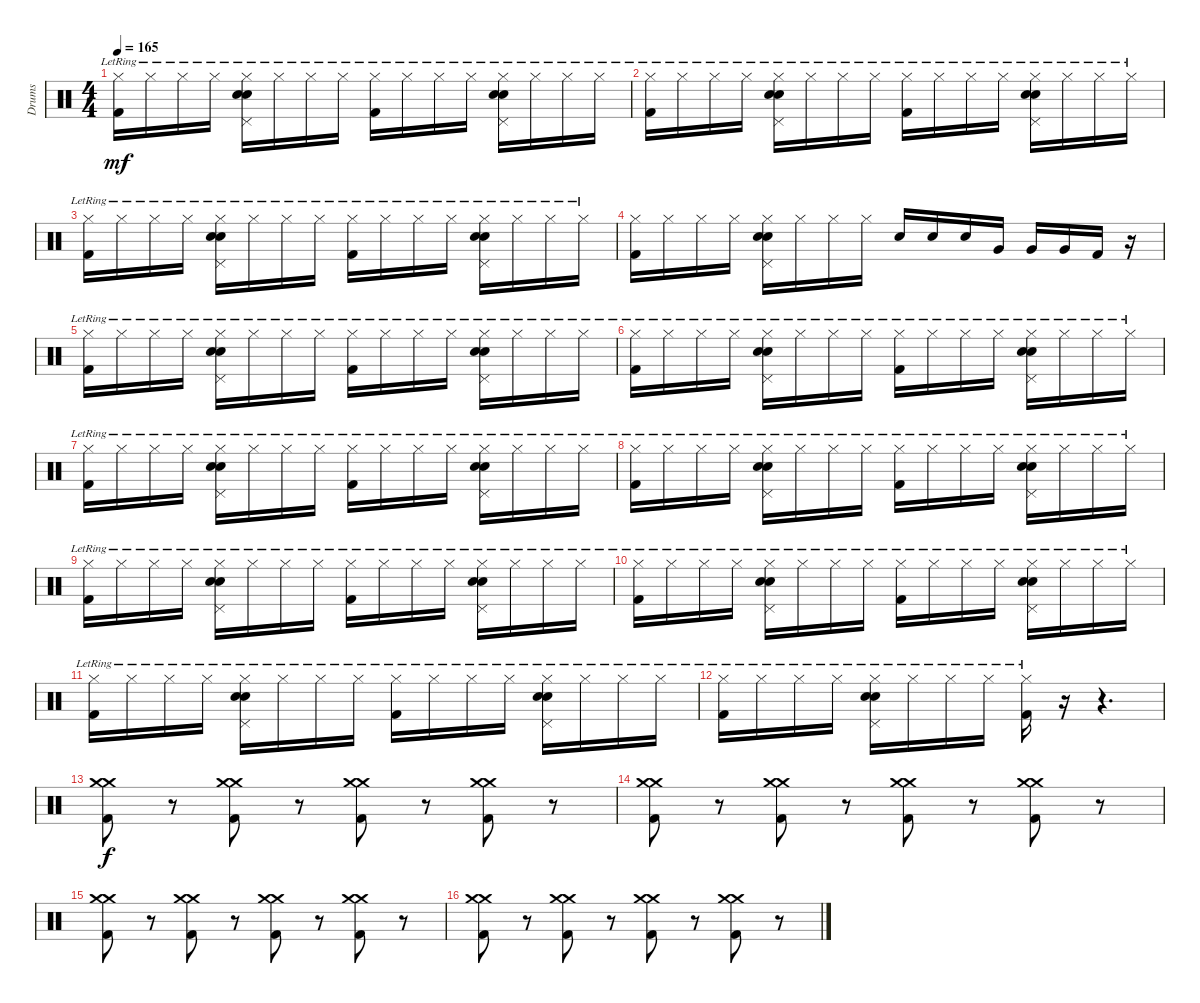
\track ("Drums" "Drums") {instrument percussion}
\staff {score}
\articulation defaults
\ts (4 4)
\tempo 165
\clef neutral
\ks c
("Hi-Hat (closed)"{lr} "Kick (hit) 2").16{dy mf} "Hi-Hat (closed)"{lr}.16 "Hi-Hat (closed)"{lr}.16 "Hi-Hat (closed)"{lr}.16 ("Hi-Hat (closed)"{lr} "Pedal Hi-Hat (hit)" "Electric Snare (hit)" "Electric Snare (hit)").16 "Hi-Hat (closed)"{lr}.16 "Hi-Hat (closed)"{lr}.16 "Hi-Hat (closed)"{lr}.16 ("Hi-Hat (closed)"{lr} "Kick (hit) 2").16 "Hi-Hat (closed)"{lr}.16 "Hi-Hat (closed)"{lr}.16 "Hi-Hat (closed)"{lr}.16 ("Hi-Hat (closed)"{lr} "Pedal Hi-Hat (hit)" "Electric Snare (hit)" "Electric Snare (hit)").16 "Hi-Hat (closed)"{lr}.16 "Hi-Hat (closed)"{lr}.16 "Hi-Hat (closed)"{lr}.16 |
("Hi-Hat (closed)"{lr} "Kick (hit) 2").16 "Hi-Hat (closed)"{lr}.16 "Hi-Hat (closed)"{lr}.16 "Hi-Hat (closed)"{lr}.16 ("Hi-Hat (closed)"{lr} "Pedal Hi-Hat (hit)" "Electric Snare (hit)" "Electric Snare (hit)").16 "Hi-Hat (closed)"{lr}.16 "Hi-Hat (closed)"{lr}.16 "Hi-Hat (closed)"{lr}.16 ("Hi-Hat (closed)"{lr} "Kick (hit) 2").16 "Hi-Hat (closed)"{lr}.16 "Hi-Hat (closed)"{lr}.16 "Hi-Hat (closed)"{lr}.16 ("Hi-Hat (closed)"{lr} "Pedal Hi-Hat (hit)" "Electric Snare (hit)" "Electric Snare (hit)").16 "Hi-Hat (closed)"{lr}.16 "Hi-Hat (closed)"{lr}.16 "Hi-Hat (closed)"{lr}.16 |
("Hi-Hat (closed)"{lr} "Kick (hit) 2").16 "Hi-Hat (closed)"{lr}.16 "Hi-Hat (closed)"{lr}.16 "Hi-Hat (closed)"{lr}.16 ("Hi-Hat (closed)"{lr} "Pedal Hi-Hat (hit)" "Electric Snare (hit)" "Electric Snare (hit)").16 "Hi-Hat (closed)"{lr}.16 "Hi-Hat (closed)"{lr}.16 "Hi-Hat (closed)"{lr}.16 ("Hi-Hat (closed)"{lr} "Kick (hit) 2").16 "Hi-Hat (closed)"{lr}.16 "Hi-Hat (closed)"{lr}.16 "Hi-Hat (closed)"{lr}.16 ("Hi-Hat (closed)"{lr} "Pedal Hi-Hat (hit)" "Electric Snare (hit)" "Electric Snare (hit)").16 "Hi-Hat (closed)"{lr}.16 "Hi-Hat (closed)"{lr}.16 "Hi-Hat (closed)"{lr}.16 |
("Hi-Hat (closed)" "Kick (hit) 2").16 "Hi-Hat (closed)".16 "Hi-Hat (closed)".16 "Hi-Hat (closed)".16 ("Hi-Hat (closed)" "Pedal Hi-Hat (hit)" "Electric Snare (hit)" "Electric Snare (hit)").16 "Hi-Hat (closed)".16 "Hi-Hat (closed)".16 "Hi-Hat (closed)".16 "Electric Snare (hit)".16 "Electric Snare (hit)".16 "Electric Snare (hit)".16 "Very Low Tom (hit)".16 "Very Low Tom (hit)".16 "Very Low Tom (hit)".16 "Kick (hit) 2".16 r.16 |
("Hi-Hat (closed)"{lr} "Kick (hit) 2").16 "Hi-Hat (closed)"{lr}.16 "Hi-Hat (closed)"{lr}.16 "Hi-Hat (closed)"{lr}.16 ("Hi-Hat (closed)"{lr} "Pedal Hi-Hat (hit)" "Electric Snare (hit)" "Electric Snare (hit)").16 "Hi-Hat (closed)"{lr}.16 "Hi-Hat (closed)"{lr}.16 "Hi-Hat (closed)"{lr}.16 ("Hi-Hat (closed)"{lr} "Kick (hit) 2").16 "Hi-Hat (closed)"{lr}.16 "Hi-Hat (closed)"{lr}.16 "Hi-Hat (closed)"{lr}.16 ("Hi-Hat (closed)"{lr} "Pedal Hi-Hat (hit)" "Electric Snare (hit)" "Electric Snare (hit)").16 "Hi-Hat (closed)"{lr}.16 "Hi-Hat (closed)"{lr}.16 "Hi-Hat (closed)"{lr}.16 |
("Hi-Hat (closed)"{lr} "Kick (hit) 2").16 "Hi-Hat (closed)"{lr}.16 "Hi-Hat (closed)"{lr}.16 "Hi-Hat (closed)"{lr}.16 ("Hi-Hat (closed)"{lr} "Pedal Hi-Hat (hit)" "Electric Snare (hit)" "Electric Snare (hit)").16 "Hi-Hat (closed)"{lr}.16 "Hi-Hat (closed)"{lr}.16 "Hi-Hat (closed)"{lr}.16 ("Hi-Hat (closed)"{lr} "Kick (hit) 2").16 "Hi-Hat (closed)"{lr}.16 "Hi-Hat (closed)"{lr}.16 "Hi-Hat (closed)"{lr}.16 ("Hi-Hat (closed)"{lr} "Pedal Hi-Hat (hit)" "Electric Snare (hit)" "Electric Snare (hit)").16 "Hi-Hat (closed)"{lr}.16 "Hi-Hat (closed)"{lr}.16 "Hi-Hat (closed)"{lr}.16 |
("Hi-Hat (closed)"{lr} "Kick (hit) 2").16 "Hi-Hat (closed)"{lr}.16 "Hi-Hat (closed)"{lr}.16 "Hi-Hat (closed)"{lr}.16 ("Hi-Hat (closed)"{lr} "Pedal Hi-Hat (hit)" "Electric Snare (hit)" "Electric Snare (hit)").16 "Hi-Hat (closed)"{lr}.16 "Hi-Hat (closed)"{lr}.16 "Hi-Hat (closed)"{lr}.16 ("Hi-Hat (closed)"{lr} "Kick (hit) 2").16 "Hi-Hat (closed)"{lr}.16 "Hi-Hat (closed)"{lr}.16 "Hi-Hat (closed)"{lr}.16 ("Hi-Hat (closed)"{lr} "Pedal Hi-Hat (hit)" "Electric Snare (hit)" "Electric Snare (hit)").16 "Hi-Hat (closed)"{lr}.16 "Hi-Hat (closed)"{lr}.16 "Hi-Hat (closed)"{lr}.16 |
("Hi-Hat (closed)"{lr} "Kick (hit) 2").16 "Hi-Hat (closed)"{lr}.16 "Hi-Hat (closed)"{lr}.16 "Hi-Hat (closed)"{lr}.16 ("Hi-Hat (closed)"{lr} "Pedal Hi-Hat (hit)" "Electric Snare (hit)" "Electric Snare (hit)").16 "Hi-Hat (closed)"{lr}.16 "Hi-Hat (closed)"{lr}.16 "Hi-Hat (closed)"{lr}.16 ("Hi-Hat (closed)"{lr} "Kick (hit) 2").16 "Hi-Hat (closed)"{lr}.16 "Hi-Hat (closed)"{lr}.16 "Hi-Hat (closed)"{lr}.16 ("Hi-Hat (closed)"{lr} "Pedal Hi-Hat (hit)" "Electric Snare (hit)" "Electric Snare (hit)").16 "Hi-Hat (closed)"{lr}.16 "Hi-Hat (closed)"{lr}.16 "Hi-Hat (closed)"{lr}.16 |
("Hi-Hat (closed)"{lr} "Kick (hit) 2").16 "Hi-Hat (closed)"{lr}.16 "Hi-Hat (closed)"{lr}.16 "Hi-Hat (closed)"{lr}.16 ("Hi-Hat (closed)"{lr} "Pedal Hi-Hat (hit)" "Electric Snare (hit)" "Electric Snare (hit)").16 "Hi-Hat (closed)"{lr}.16 "Hi-Hat (closed)"{lr}.16 "Hi-Hat (closed)"{lr}.16 ("Hi-Hat (closed)"{lr} "Kick (hit) 2").16 "Hi-Hat (closed)"{lr}.16 "Hi-Hat (closed)"{lr}.16 "Hi-Hat (closed)"{lr}.16 ("Hi-Hat (closed)"{lr} "Pedal Hi-Hat (hit)" "Electric Snare (hit)" "Electric Snare (hit)").16 "Hi-Hat (closed)"{lr}.16 "Hi-Hat (closed)"{lr}.16 "Hi-Hat (closed)"{lr}.16 |
("Hi-Hat (closed)"{lr} "Kick (hit) 2").16 "Hi-Hat (closed)"{lr}.16 "Hi-Hat (closed)"{lr}.16 "Hi-Hat (closed)"{lr}.16 ("Hi-Hat (closed)"{lr} "Pedal Hi-Hat (hit)" "Electric Snare (hit)" "Electric Snare (hit)").16 "Hi-Hat (closed)"{lr}.16 "Hi-Hat (closed)"{lr}.16 "Hi-Hat (closed)"{lr}.16 ("Hi-Hat (closed)"{lr} "Kick (hit) 2").16 "Hi-Hat (closed)"{lr}.16 "Hi-Hat (closed)"{lr}.16 "Hi-Hat (closed)"{lr}.16 ("Hi-Hat (closed)"{lr} "Pedal Hi-Hat (hit)" "Electric Snare (hit)" "Electric Snare (hit)").16 "Hi-Hat (closed)"{lr}.16 "Hi-Hat (closed)"{lr}.16 "Hi-Hat (closed)"{lr}.16 |
("Hi-Hat (closed)"{lr} "Kick (hit) 2").16 "Hi-Hat (closed)"{lr}.16 "Hi-Hat (closed)"{lr}.16 "Hi-Hat (closed)"{lr}.16 ("Hi-Hat (closed)"{lr} "Pedal Hi-Hat (hit)" "Electric Snare (hit)" "Electric Snare (hit)").16 "Hi-Hat (closed)"{lr}.16 "Hi-Hat (closed)"{lr}.16 "Hi-Hat (closed)"{lr}.16 ("Hi-Hat (closed)"{lr} "Kick (hit) 2").16 "Hi-Hat (closed)"{lr}.16 "Hi-Hat (closed)"{lr}.16 "Hi-Hat (closed)"{lr}.16 ("Hi-Hat (closed)"{lr} "Pedal Hi-Hat (hit)" "Electric Snare (hit)" "Electric Snare (hit)").16 "Hi-Hat (closed)"{lr}.16 "Hi-Hat (closed)"{lr}.16 "Hi-Hat (closed)"{lr}.16 |
("Hi-Hat (closed)"{lr} "Kick (hit) 2").16 "Hi-Hat (closed)"{lr}.16 "Hi-Hat (closed)"{lr}.16 "Hi-Hat (closed)"{lr}.16 ("Hi-Hat (closed)"{lr} "Pedal Hi-Hat (hit)" "Electric Snare (hit)" "Electric Snare (hit)").16 "Hi-Hat (closed)"{lr}.16 "Hi-Hat (closed)"{lr}.16 "Hi-Hat (closed)"{lr}.16 ("Hi-Hat (closed)"{lr} "Kick (hit) 2").16 r.16 r.4{d} |
("Crash medium (hit)" "Crash medium (hit)" "Kick (hit) 2").8{dy f} r.8 ("Crash medium (hit)" "Crash medium (hit)" "Kick (hit) 2").8 r.8 ("Crash medium (hit)" "Crash medium (hit)" "Kick (hit) 2").8 r.8 ("Crash medium (hit)" "Crash medium (hit)" "Kick (hit) 2").8 r.8 |
("Crash medium (hit)" "Crash medium (hit)" "Kick (hit) 2").8 r.8 ("Crash medium (hit)" "Crash medium (hit)" "Kick (hit) 2").8 r.8 ("Crash medium (hit)" "Crash medium (hit)" "Kick (hit) 2").8 r.8 ("Crash medium (hit)" "Crash medium (hit)" "Kick (hit) 2").8 r.8 |
("Crash medium (hit)" "Crash medium (hit)" "Kick (hit) 2").8 r.8 ("Crash medium (hit)" "Crash medium (hit)" "Kick (hit) 2").8 r.8 ("Crash medium (hit)" "Crash medium (hit)" "Kick (hit) 2").8 r.8 ("Crash medium (hit)" "Crash medium (hit)" "Kick (hit) 2").8 r.8 |
("Crash medium (hit)" "Crash medium (hit)" "Kick (hit) 2").8 r.8 ("Crash medium (hit)" "Crash medium (hit)" "Kick (hit) 2").8 r.8 ("Crash medium (hit)" "Crash medium (hit)" "Kick (hit) 2").8 r.8 ("Crash medium (hit)" "Crash medium (hit)" "Kick (hit) 2").8 r.8
